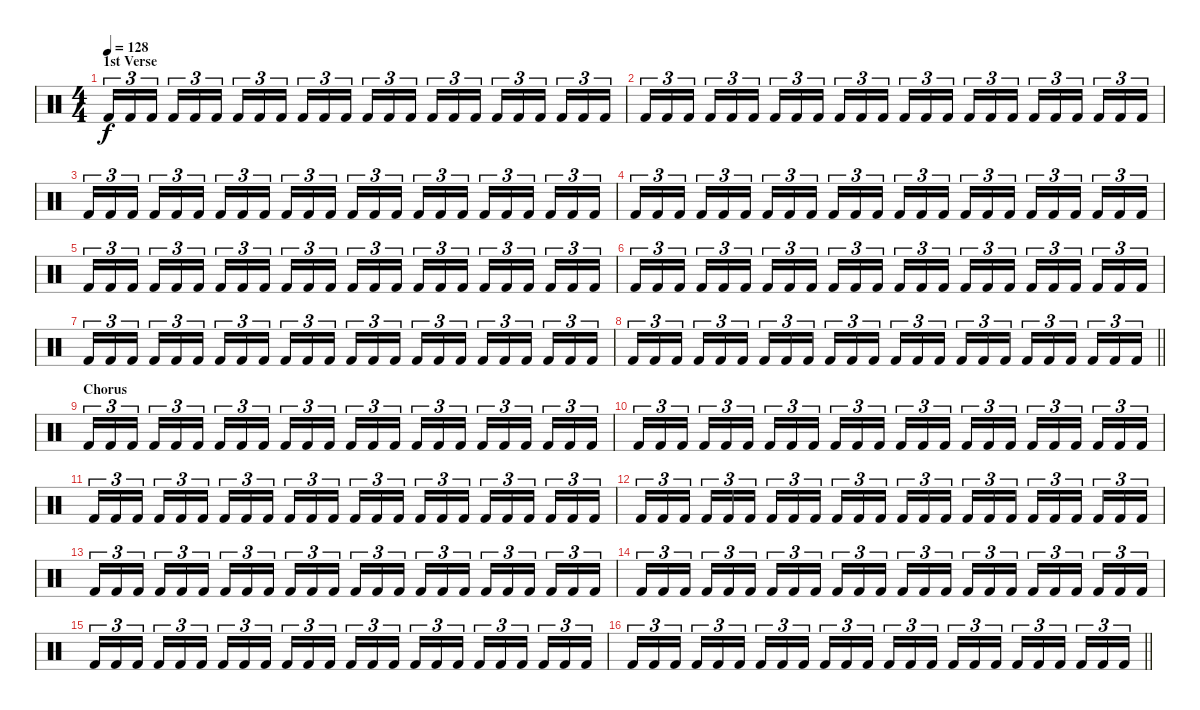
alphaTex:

\track "" {instrument percussion}
\staff {score}
\articulation defaults
\ts (4 4)
\section ("" "1st Verse")
\tempo 128
\clef neutral
\ks c "Kick (hit) 2".16{tu (3 2) dy f} "Kick (hit) 2".16{tu (3 2)} "Kick (hit) 2".16{tu (3 2) beam splitsecondary} "Kick (hit) 2".16{tu (3 2)} "Kick (hit) 2".16{tu (3 2)} "Kick (hit) 2".16{tu (3 2)} "Kick (hit) 2".16{tu (3 2)} "Kick (hit) 2".16{tu (3 2)} "Kick (hit) 2".16{tu (3 2) beam splitsecondary} "Kick (hit) 2".16{tu (3 2)} "Kick (hit) 2".16{tu (3 2)} "Kick (hit) 2".16{tu (3 2)} "Kick (hit) 2".16{tu (3 2)} "Kick (hit) 2".16{tu (3 2)} "Kick (hit) 2".16{tu (3 2) beam splitsecondary} "Kick (hit) 2".16{tu (3 2)} "Kick (hit) 2".16{tu (3 2)} "Kick (hit) 2".16{tu (3 2)} "Kick (hit) 2".16{tu (3 2)} "Kick (hit) 2".16{tu (3 2)} "Kick (hit) 2".16{tu (3 2) beam splitsecondary} "Kick (hit) 2".16{tu (3 2)} "Kick (hit) 2".16{tu (3 2)} "Kick (hit) 2".16{tu (3 2)}
|
"Kick (hit) 2".16{tu (3 2)} "Kick (hit) 2".16{tu (3 2)} "Kick (hit) 2".16{tu (3 2) beam splitsecondary} "Kick (hit) 2".16{tu (3 2)} "Kick (hit) 2".16{tu (3 2)} "Kick (hit) 2".16{tu (3 2)} "Kick (hit) 2".16{tu (3 2)} "Kick (hit) 2".16{tu (3 2)} "Kick (hit) 2".16{tu (3 2) beam splitsecondary} "Kick (hit) 2".16{tu (3 2)} "Kick (hit) 2".16{tu (3 2)} "Kick (hit) 2".16{tu (3 2)} "Kick (hit) 2".16{tu (3 2)} "Kick (hit) 2".16{tu (3 2)} "Kick (hit) 2".16{tu (3 2) beam splitsecondary} "Kick (hit) 2".16{tu (3 2)} "Kick (hit) 2".16{tu (3 2)} "Kick (hit) 2".16{tu (3 2)} "Kick (hit) 2".16{tu (3 2)} "Kick (hit) 2".16{tu (3 2)} "Kick (hit) 2".16{tu (3 2) beam splitsecondary} "Kick (hit) 2".16{tu (3 2)} "Kick (hit) 2".16{tu (3 2)} "Kick (hit) 2".16{tu (3 2)} |
"Kick (hit) 2".16{tu (3 2)} "Kick (hit) 2".16{tu (3 2)} "Kick (hit) 2".16{tu (3 2) beam splitsecondary} "Kick (hit) 2".16{tu (3 2)} "Kick (hit) 2".16{tu (3 2)} "Kick (hit) 2".16{tu (3 2)} "Kick (hit) 2".16{tu (3 2)} "Kick (hit) 2".16{tu (3 2)} "Kick (hit) 2".16{tu (3 2) beam splitsecondary} "Kick (hit) 2".16{tu (3 2)} "Kick (hit) 2".16{tu (3 2)} "Kick (hit) 2".16{tu (3 2)} "Kick (hit) 2".16{tu (3 2)} "Kick (hit) 2".16{tu (3 2)} "Kick (hit) 2".16{tu (3 2) beam splitsecondary} "Kick (hit) 2".16{tu (3 2)} "Kick (hit) 2".16{tu (3 2)} "Kick (hit) 2".16{tu (3 2)} "Kick (hit) 2".16{tu (3 2)} "Kick (hit) 2".16{tu (3 2)} "Kick (hit) 2".16{tu (3 2) beam splitsecondary} "Kick (hit) 2".16{tu (3 2)} "Kick (hit) 2".16{tu (3 2)} "Kick (hit) 2".16{tu (3 2)} |
"Kick (hit) 2".16{tu (3 2)} "Kick (hit) 2".16{tu (3 2)} "Kick (hit) 2".16{tu (3 2) beam splitsecondary} "Kick (hit) 2".16{tu (3 2)} "Kick (hit) 2".16{tu (3 2)} "Kick (hit) 2".16{tu (3 2)} "Kick (hit) 2".16{tu (3 2)} "Kick (hit) 2".16{tu (3 2)} "Kick (hit) 2".16{tu (3 2) beam splitsecondary} "Kick (hit) 2".16{tu (3 2)} "Kick (hit) 2".16{tu (3 2)} "Kick (hit) 2".16{tu (3 2)} "Kick (hit) 2".16{tu (3 2)} "Kick (hit) 2".16{tu (3 2)} "Kick (hit) 2".16{tu (3 2) beam splitsecondary} "Kick (hit) 2".16{tu (3 2)} "Kick (hit) 2".16{tu (3 2)} "Kick (hit) 2".16{tu (3 2)} "Kick (hit) 2".16{tu (3 2)} "Kick (hit) 2".16{tu (3 2)} "Kick (hit) 2".16{tu (3 2) beam splitsecondary} "Kick (hit) 2".16{tu (3 2)} "Kick (hit) 2".16{tu (3 2)} "Kick (hit) 2".16{tu (3 2)} |
"Kick (hit) 2".16{tu (3 2)} "Kick (hit) 2".16{tu (3 2)} "Kick (hit) 2".16{tu (3 2) beam splitsecondary} "Kick (hit) 2".16{tu (3 2)} "Kick (hit) 2".16{tu (3 2)} "Kick (hit) 2".16{tu (3 2)} "Kick (hit) 2".16{tu (3 2)} "Kick (hit) 2".16{tu (3 2)} "Kick (hit) 2".16{tu (3 2) beam splitsecondary} "Kick (hit) 2".16{tu (3 2)} "Kick (hit) 2".16{tu (3 2)} "Kick (hit) 2".16{tu (3 2)} "Kick (hit) 2".16{tu (3 2)} "Kick (hit) 2".16{tu (3 2)} "Kick (hit) 2".16{tu (3 2) beam splitsecondary} "Kick (hit) 2".16{tu (3 2)} "Kick (hit) 2".16{tu (3 2)} "Kick (hit) 2".16{tu (3 2)} "Kick (hit) 2".16{tu (3 2)} "Kick (hit) 2".16{tu (3 2)} "Kick (hit) 2".16{tu (3 2) beam splitsecondary} "Kick (hit) 2".16{tu (3 2)} "Kick (hit) 2".16{tu (3 2)} "Kick (hit) 2".16{tu (3 2)} |
"Kick (hit) 2".16{tu (3 2)} "Kick (hit) 2".16{tu (3 2)} "Kick (hit) 2".16{tu (3 2) beam splitsecondary} "Kick (hit) 2".16{tu (3 2)} "Kick (hit) 2".16{tu (3 2)} "Kick (hit) 2".16{tu (3 2)} "Kick (hit) 2".16{tu (3 2)} "Kick (hit) 2".16{tu (3 2)} "Kick (hit) 2".16{tu (3 2) beam splitsecondary} "Kick (hit) 2".16{tu (3 2)} "Kick (hit) 2".16{tu (3 2)} "Kick (hit) 2".16{tu (3 2)} "Kick (hit) 2".16{tu (3 2)} "Kick (hit) 2".16{tu (3 2)} "Kick (hit) 2".16{tu (3 2) beam splitsecondary} "Kick (hit) 2".16{tu (3 2)} "Kick (hit) 2".16{tu (3 2)} "Kick (hit) 2".16{tu (3 2)} "Kick (hit) 2".16{tu (3 2)} "Kick (hit) 2".16{tu (3 2)} "Kick (hit) 2".16{tu (3 2) beam splitsecondary} "Kick (hit) 2".16{tu (3 2)} "Kick (hit) 2".16{tu (3 2)} "Kick (hit) 2".16{tu (3 2)} |
"Kick (hit) 2".16{tu (3 2)} "Kick (hit) 2".16{tu (3 2)} "Kick (hit) 2".16{tu (3 2) beam splitsecondary} "Kick (hit) 2".16{tu (3 2)} "Kick (hit) 2".16{tu (3 2)} "Kick (hit) 2".16{tu (3 2)} "Kick (hit) 2".16{tu (3 2)} "Kick (hit) 2".16{tu (3 2)} "Kick (hit) 2".16{tu (3 2) beam splitsecondary} "Kick (hit) 2".16{tu (3 2)} "Kick (hit) 2".16{tu (3 2)} "Kick (hit) 2".16{tu (3 2)} "Kick (hit) 2".16{tu (3 2)} "Kick (hit) 2".16{tu (3 2)} "Kick (hit) 2".16{tu (3 2) beam splitsecondary} "Kick (hit) 2".16{tu (3 2)} "Kick (hit) 2".16{tu (3 2)} "Kick (hit) 2".16{tu (3 2)} "Kick (hit) 2".16{tu (3 2)} "Kick (hit) 2".16{tu (3 2)} "Kick (hit) 2".16{tu (3 2) beam splitsecondary} "Kick (hit) 2".16{tu (3 2)} "Kick (hit) 2".16{tu (3 2)} "Kick (hit) 2".16{tu (3 2)} |
\barLineRight lightlight "Kick (hit) 2".16{tu (3 2)} "Kick (hit) 2".16{tu (3 2)} "Kick (hit) 2".16{tu (3 2) beam splitsecondary} "Kick (hit) 2".16{tu (3 2)} "Kick (hit) 2".16{tu (3 2)} "Kick (hit) 2".16{tu (3 2)} "Kick (hit) 2".16{tu (3 2)} "Kick (hit) 2".16{tu (3 2)} "Kick (hit) 2".16{tu (3 2) beam splitsecondary} "Kick (hit) 2".16{tu (3 2)} "Kick (hit) 2".16{tu (3 2)} "Kick (hit) 2".16{tu (3 2)} "Kick (hit) 2".16{tu (3 2)} "Kick (hit) 2".16{tu (3 2)} "Kick (hit) 2".16{tu (3 2) beam splitsecondary} "Kick (hit) 2".16{tu (3 2)} "Kick (hit) 2".16{tu (3 2)} "Kick (hit) 2".16{tu (3 2)} "Kick (hit) 2".16{tu (3 2)} "Kick (hit) 2".16{tu (3 2)} "Kick (hit) 2".16{tu (3 2) beam splitsecondary} "Kick (hit) 2".16{tu (3 2)} "Kick (hit) 2".16{tu (3 2)} "Kick (hit) 2".16{tu (3 2)}
|
\section ("" "Chorus")
"Kick (hit) 2".16{tu (3 2)} "Kick (hit) 2".16{tu (3 2)} "Kick (hit) 2".16{tu (3 2) beam splitsecondary} "Kick (hit) 2".16{tu (3 2)} "Kick (hit) 2".16{tu (3 2)} "Kick (hit) 2".16{tu (3 2)} "Kick (hit) 2".16{tu (3 2)} "Kick (hit) 2".16{tu (3 2)} "Kick (hit) 2".16{tu (3 2) beam splitsecondary} "Kick (hit) 2".16{tu (3 2)} "Kick (hit) 2".16{tu (3 2)} "Kick (hit) 2".16{tu (3 2)} "Kick (hit) 2".16{tu (3 2)} "Kick (hit) 2".16{tu (3 2)} "Kick (hit) 2".16{tu (3 2) beam splitsecondary} "Kick (hit) 2".16{tu (3 2)} "Kick (hit) 2".16{tu (3 2)} "Kick (hit) 2".16{tu (3 2)} "Kick (hit) 2".16{tu (3 2)} "Kick (hit) 2".16{tu (3 2)} "Kick (hit) 2".16{tu (3 2) beam splitsecondary} "Kick (hit) 2".16{tu (3 2)} "Kick (hit) 2".16{tu (3 2)} "Kick (hit) 2".16{tu (3 2)} |
"Kick (hit) 2".16{tu (3 2)} "Kick (hit) 2".16{tu (3 2)} "Kick (hit) 2".16{tu (3 2) beam splitsecondary} "Kick (hit) 2".16{tu (3 2)} "Kick (hit) 2".16{tu (3 2)} "Kick (hit) 2".16{tu (3 2)} "Kick (hit) 2".16{tu (3 2)} "Kick (hit) 2".16{tu (3 2)} "Kick (hit) 2".16{tu (3 2) beam splitsecondary} "Kick (hit) 2".16{tu (3 2)} "Kick (hit) 2".16{tu (3 2)} "Kick (hit) 2".16{tu (3 2)} "Kick (hit) 2".16{tu (3 2)} "Kick (hit) 2".16{tu (3 2)} "Kick (hit) 2".16{tu (3 2) beam splitsecondary} "Kick (hit) 2".16{tu (3 2)} "Kick (hit) 2".16{tu (3 2)} "Kick (hit) 2".16{tu (3 2)} "Kick (hit) 2".16{tu (3 2)} "Kick (hit) 2".16{tu (3 2)} "Kick (hit) 2".16{tu (3 2) beam splitsecondary} "Kick (hit) 2".16{tu (3 2)} "Kick (hit) 2".16{tu (3 2)} "Kick (hit) 2".16{tu (3 2)} |
"Kick (hit) 2".16{tu (3 2)} "Kick (hit) 2".16{tu (3 2)} "Kick (hit) 2".16{tu (3 2) beam splitsecondary} "Kick (hit) 2".16{tu (3 2)} "Kick (hit) 2".16{tu (3 2)} "Kick (hit) 2".16{tu (3 2)} "Kick (hit) 2".16{tu (3 2)} "Kick (hit) 2".16{tu (3 2)} "Kick (hit) 2".16{tu (3 2) beam splitsecondary} "Kick (hit) 2".16{tu (3 2)} "Kick (hit) 2".16{tu (3 2)} "Kick (hit) 2".16{tu (3 2)} "Kick (hit) 2".16{tu (3 2)} "Kick (hit) 2".16{tu (3 2)} "Kick (hit) 2".16{tu (3 2) beam splitsecondary} "Kick (hit) 2".16{tu (3 2)} "Kick (hit) 2".16{tu (3 2)} "Kick (hit) 2".16{tu (3 2)} "Kick (hit) 2".16{tu (3 2)} "Kick (hit) 2".16{tu (3 2)} "Kick (hit) 2".16{tu (3 2) beam splitsecondary} "Kick (hit) 2".16{tu (3 2)} "Kick (hit) 2".16{tu (3 2)} "Kick (hit) 2".16{tu (3 2)} |
"Kick (hit) 2".16{tu (3 2)} "Kick (hit) 2".16{tu (3 2)} "Kick (hit) 2".16{tu (3 2) beam splitsecondary} "Kick (hit) 2".16{tu (3 2)} "Kick (hit) 2".16{tu (3 2)} "Kick (hit) 2".16{tu (3 2)} "Kick (hit) 2".16{tu (3 2)} "Kick (hit) 2".16{tu (3 2)} "Kick (hit) 2".16{tu (3 2) beam splitsecondary} "Kick (hit) 2".16{tu (3 2)} "Kick (hit) 2".16{tu (3 2)} "Kick (hit) 2".16{tu (3 2)} "Kick (hit) 2".16{tu (3 2)} "Kick (hit) 2".16{tu (3 2)} "Kick (hit) 2".16{tu (3 2) beam splitsecondary} "Kick (hit) 2".16{tu (3 2)} "Kick (hit) 2".16{tu (3 2)} "Kick (hit) 2".16{tu (3 2)} "Kick (hit) 2".16{tu (3 2)} "Kick (hit) 2".16{tu (3 2)} "Kick (hit) 2".16{tu (3 2) beam splitsecondary} "Kick (hit) 2".16{tu (3 2)} "Kick (hit) 2".16{tu (3 2)} "Kick (hit) 2".16{tu (3 2)} |
"Kick (hit) 2".16{tu (3 2)} "Kick (hit) 2".16{tu (3 2)} "Kick (hit) 2".16{tu (3 2) beam splitsecondary} "Kick (hit) 2".16{tu (3 2)} "Kick (hit) 2".16{tu (3 2)} "Kick (hit) 2".16{tu (3 2)} "Kick (hit) 2".16{tu (3 2)} "Kick (hit) 2".16{tu (3 2)} "Kick (hit) 2".16{tu (3 2) beam splitsecondary} "Kick (hit) 2".16{tu (3 2)} "Kick (hit) 2".16{tu (3 2)} "Kick (hit) 2".16{tu (3 2)} "Kick (hit) 2".16{tu (3 2)} "Kick (hit) 2".16{tu (3 2)} "Kick (hit) 2".16{tu (3 2) beam splitsecondary} "Kick (hit) 2".16{tu (3 2)} "Kick (hit) 2".16{tu (3 2)} "Kick (hit) 2".16{tu (3 2)} "Kick (hit) 2".16{tu (3 2)} "Kick (hit) 2".16{tu (3 2)} "Kick (hit) 2".16{tu (3 2) beam splitsecondary} "Kick (hit) 2".16{tu (3 2)} "Kick (hit) 2".16{tu (3 2)} "Kick (hit) 2".16{tu (3 2)} |
"Kick (hit) 2".16{tu (3 2)} "Kick (hit) 2".16{tu (3 2)} "Kick (hit) 2".16{tu (3 2) beam splitsecondary} "Kick (hit) 2".16{tu (3 2)} "Kick (hit) 2".16{tu (3 2)} "Kick (hit) 2".16{tu (3 2)} "Kick (hit) 2".16{tu (3 2)} "Kick (hit) 2".16{tu (3 2)} "Kick (hit) 2".16{tu (3 2) beam splitsecondary} "Kick (hit) 2".16{tu (3 2)} "Kick (hit) 2".16{tu (3 2)} "Kick (hit) 2".16{tu (3 2)} "Kick (hit) 2".16{tu (3 2)} "Kick (hit) 2".16{tu (3 2)} "Kick (hit) 2".16{tu (3 2) beam splitsecondary} "Kick (hit) 2".16{tu (3 2)} "Kick (hit) 2".16{tu (3 2)} "Kick (hit) 2".16{tu (3 2)} "Kick (hit) 2".16{tu (3 2)} "Kick (hit) 2".16{tu (3 2)} "Kick (hit) 2".16{tu (3 2) beam splitsecondary} "Kick (hit) 2".16{tu (3 2)} "Kick (hit) 2".16{tu (3 2)} "Kick (hit) 2".16{tu (3 2)} |
"Kick (hit) 2".16{tu (3 2)} "Kick (hit) 2".16{tu (3 2)} "Kick (hit) 2".16{tu (3 2) beam splitsecondary} "Kick (hit) 2".16{tu (3 2)} "Kick (hit) 2".16{tu (3 2)} "Kick (hit) 2".16{tu (3 2)} "Kick (hit) 2".16{tu (3 2)} "Kick (hit) 2".16{tu (3 2)} "Kick (hit) 2".16{tu (3 2) beam splitsecondary} "Kick (hit) 2".16{tu (3 2)} "Kick (hit) 2".16{tu (3 2)} "Kick (hit) 2".16{tu (3 2)} "Kick (hit) 2".16{tu (3 2)} "Kick (hit) 2".16{tu (3 2)} "Kick (hit) 2".16{tu (3 2) beam splitsecondary} "Kick (hit) 2".16{tu (3 2)} "Kick (hit) 2".16{tu (3 2)} "Kick (hit) 2".16{tu (3 2)} "Kick (hit) 2".16{tu (3 2)} "Kick (hit) 2".16{tu (3 2)} "Kick (hit) 2".16{tu (3 2) beam splitsecondary} "Kick (hit) 2".16{tu (3 2)} "Kick (hit) 2".16{tu (3 2)} "Kick (hit) 2".16{tu (3 2)} |
\barLineRight lightlight "Kick (hit) 2".16{tu (3 2)} "Kick (hit) 2".16{tu (3 2)} "Kick (hit) 2".16{tu (3 2) beam splitsecondary} "Kick (hit) 2".16{tu (3 2)} "Kick (hit) 2".16{tu (3 2)} "Kick (hit) 2".16{tu (3 2)} "Kick (hit) 2".16{tu (3 2)} "Kick (hit) 2".16{tu (3 2)} "Kick (hit) 2".16{tu (3 2) beam splitsecondary} "Kick (hit) 2".16{tu (3 2)} "Kick (hit) 2".16{tu (3 2)} "Kick (hit) 2".16{tu (3 2)} "Kick (hit) 2".16{tu (3 2)} "Kick (hit) 2".16{tu (3 2)} "Kick (hit) 2".16{tu (3 2) beam splitsecondary} "Kick (hit) 2".16{tu (3 2)} "Kick (hit) 2".16{tu (3 2)} "Kick (hit) 2".16{tu (3 2)} "Kick (hit) 2".16{tu (3 2)} "Kick (hit) 2".16{tu (3 2)} "Kick (hit) 2".16{tu (3 2) beam splitsecondary} "Kick (hit) 2".16{tu (3 2)} "Kick (hit) 2".16{tu (3 2)} "Kick (hit) 2".16{tu (3 2)}
